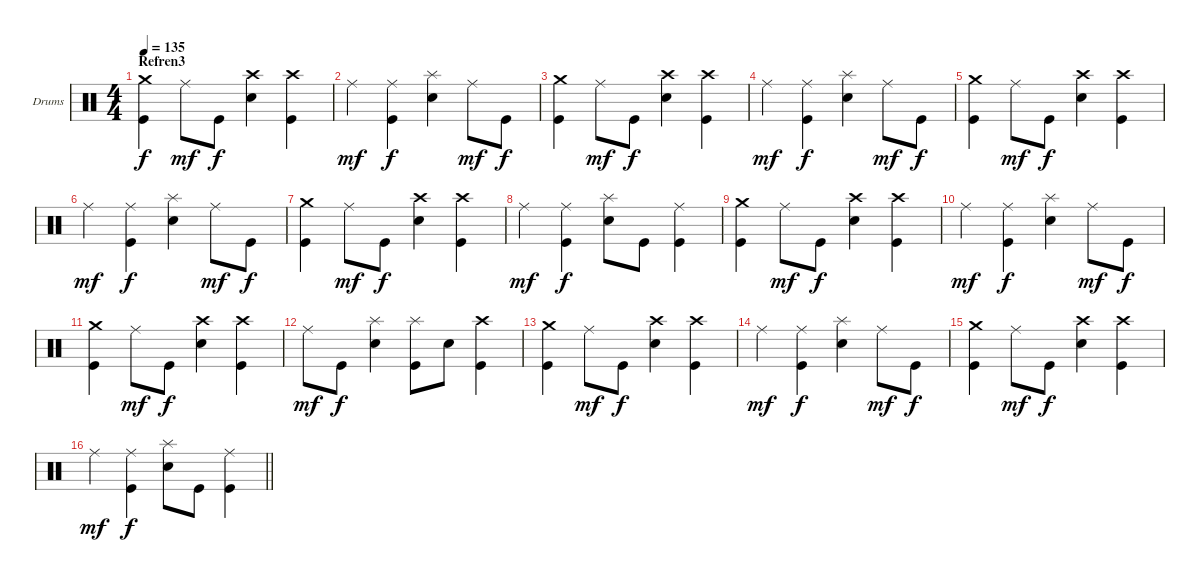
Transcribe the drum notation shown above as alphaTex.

\bracketExtendMode groupsimilarinstruments
\firstSystemTrackNameOrientation horizontal
\otherSystemsTrackNameOrientation horizontal
\track ("Drumkit" "Drums") {instrument percussion}
\staff {score}
\articulation defaults
\ts (4 4)
\section ("" "Refren3")
\tempo 135
\clef neutral
\ks c
("Kick (hit)" "Crash medium (hit)").4{dy f} "Ride (middle)".8{dy mf} "Kick (hit)".8{dy f} ("Snare (hit) 2" "Crash high (hit)").4 ("Kick (hit)" "Crash high (hit)").4 |
"Ride (middle)".4{dy mf} ("Kick (hit)" "Ride (middle)").4{dy f} ("Snare (hit) 2" "Splash (hit)").4 "Ride (middle)".8{dy mf} "Kick (hit)".8{dy f} |
("Kick (hit)" "Crash medium (hit)").4 "Ride (middle)".8{dy mf} "Kick (hit)".8{dy f} ("Snare (hit) 2" "Crash high (hit)").4 ("Kick (hit)" "Crash high (hit)").4 |
"Ride (middle)".4{dy mf} ("Kick (hit)" "Ride (middle)").4{dy f} ("Snare (hit) 2" "Splash (hit)").4 "Ride (middle)".8{dy mf} "Kick (hit)".8{dy f} |
("Kick (hit)" "Crash medium (hit)").4 "Ride (middle)".8{dy mf} "Kick (hit)".8{dy f} ("Snare (hit) 2" "Crash high (hit)").4 ("Kick (hit)" "Crash high (hit)").4 |
"Ride (middle)".4{dy mf} ("Kick (hit)" "Ride (middle)").4{dy f} ("Snare (hit) 2" "Splash (hit)").4 "Ride (middle)".8{dy mf} "Kick (hit)".8{dy f} |
("Kick (hit)" "Crash medium (hit)").4 "Ride (middle)".8{dy mf} "Kick (hit)".8{dy f} ("Snare (hit) 2" "Crash high (hit)").4 ("Kick (hit)" "Crash high (hit)").4 |
"Ride (middle)".4{dy mf} ("Kick (hit)" "Ride (middle)").4{dy f} ("Snare (hit) 2" "Splash (hit)").8 "Kick (hit)".8 ("Kick (hit)" "Ride (middle)").4 |
("Kick (hit)" "Crash medium (hit)").4 "Ride (middle)".8{dy mf} "Kick (hit)".8{dy f} ("Snare (hit) 2" "Crash high (hit)").4 ("Kick (hit)" "Crash high (hit)").4 |
"Ride (middle)".4{dy mf} ("Kick (hit)" "Ride (middle)").4{dy f} ("Snare (hit) 2" "Splash (hit)").4 "Ride (middle)".8{dy mf} "Kick (hit)".8{dy f} |
("Kick (hit)" "Crash medium (hit)").4 "Ride (middle)".8{dy mf} "Kick (hit)".8{dy f} ("Snare (hit) 2" "Crash high (hit)").4 ("Kick (hit)" "Crash high (hit)").4 |
"Ride (middle)".8{dy mf} "Kick (hit)".8{dy f} ("Snare (hit) 2" "Splash (hit)").4 ("Kick (hit)" "Splash (hit)").8 "Snare (hit) 2".8 ("Kick (hit)" "Crash high (hit)").4 |
("Kick (hit)" "Crash medium (hit)").4 "Ride (middle)".8{dy mf} "Kick (hit)".8{dy f} ("Snare (hit) 2" "Crash high (hit)").4 ("Kick (hit)" "Crash high (hit)").4 |
"Ride (middle)".4{dy mf} ("Kick (hit)" "Ride (middle)").4{dy f} ("Snare (hit) 2" "Splash (hit)").4 "Ride (middle)".8{dy mf} "Kick (hit)".8{dy f} |
("Kick (hit)" "Crash medium (hit)").4 "Ride (middle)".8{dy mf} "Kick (hit)".8{dy f} ("Snare (hit) 2" "Crash high (hit)").4 ("Kick (hit)" "Crash high (hit)").4 |
\barLineRight lightlight "Ride (middle)".4{dy mf}
("Kick (hit)" "Ride (middle)").4{dy f} ("Snare (hit) 2" "Splash (hit)").8 "Kick (hit)".8 ("Kick (hit)" "Ride (middle)").4
